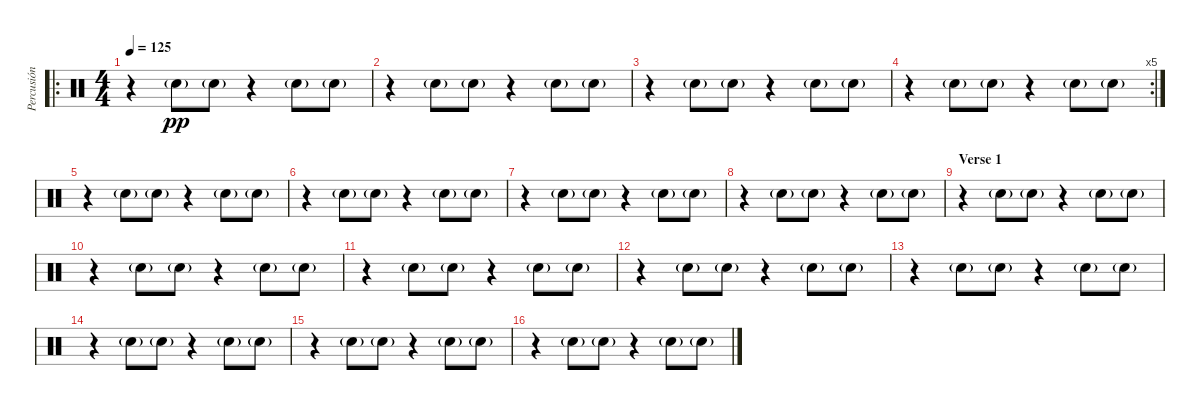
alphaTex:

\track ("Percusión" "Percusión") {instrument percussion}
\staff {score}
\articulation defaults
\ro
\ts (4 4)
\tempo 125
\clef neutral
\ks c
r.4{dy pp} "Snare (hit) 2"{g}.8 "Snare (hit) 2"{g}.8 r.4 "Snare (hit) 2"{g}.8 "Snare (hit) 2"{g}.8 |
r.4 "Snare (hit) 2"{g}.8 "Snare (hit) 2"{g}.8 r.4 "Snare (hit) 2"{g}.8 "Snare (hit) 2"{g}.8 |
r.4 "Snare (hit) 2"{g}.8 "Snare (hit) 2"{g}.8 r.4 "Snare (hit) 2"{g}.8 "Snare (hit) 2"{g}.8 |
\rc 5
r.4 "Snare (hit) 2"{g}.8 "Snare (hit) 2"{g}.8 r.4 "Snare (hit) 2"{g}.8 "Snare (hit) 2"{g}.8 |
r.4 "Snare (hit) 2"{g}.8 "Snare (hit) 2"{g}.8 r.4 "Snare (hit) 2"{g}.8 "Snare (hit) 2"{g}.8 |
r.4 "Snare (hit) 2"{g}.8 "Snare (hit) 2"{g}.8 r.4 "Snare (hit) 2"{g}.8 "Snare (hit) 2"{g}.8 |
r.4 "Snare (hit) 2"{g}.8 "Snare (hit) 2"{g}.8 r.4 "Snare (hit) 2"{g}.8 "Snare (hit) 2"{g}.8 |
r.4 "Snare (hit) 2"{g}.8 "Snare (hit) 2"{g}.8 r.4 "Snare (hit) 2"{g}.8 "Snare (hit) 2"{g}.8 |
\section ("" "Verse 1")
r.4 "Snare (hit) 2"{g}.8 "Snare (hit) 2"{g}.8 r.4 "Snare (hit) 2"{g}.8 "Snare (hit) 2"{g}.8 |
r.4 "Snare (hit) 2"{g}.8 "Snare (hit) 2"{g}.8 r.4 "Snare (hit) 2"{g}.8 "Snare (hit) 2"{g}.8 |
r.4 "Snare (hit) 2"{g}.8 "Snare (hit) 2"{g}.8 r.4 "Snare (hit) 2"{g}.8 "Snare (hit) 2"{g}.8 |
r.4 "Snare (hit) 2"{g}.8 "Snare (hit) 2"{g}.8 r.4 "Snare (hit) 2"{g}.8 "Snare (hit) 2"{g}.8 |
r.4 "Snare (hit) 2"{g}.8 "Snare (hit) 2"{g}.8 r.4 "Snare (hit) 2"{g}.8 "Snare (hit) 2"{g}.8 |
r.4 "Snare (hit) 2"{g}.8 "Snare (hit) 2"{g}.8 r.4 "Snare (hit) 2"{g}.8 "Snare (hit) 2"{g}.8 |
r.4 "Snare (hit) 2"{g}.8 "Snare (hit) 2"{g}.8 r.4 "Snare (hit) 2"{g}.8 "Snare (hit) 2"{g}.8 |
r.4 "Snare (hit) 2"{g}.8 "Snare (hit) 2"{g}.8 r.4 "Snare (hit) 2"{g}.8 "Snare (hit) 2"{g}.8
